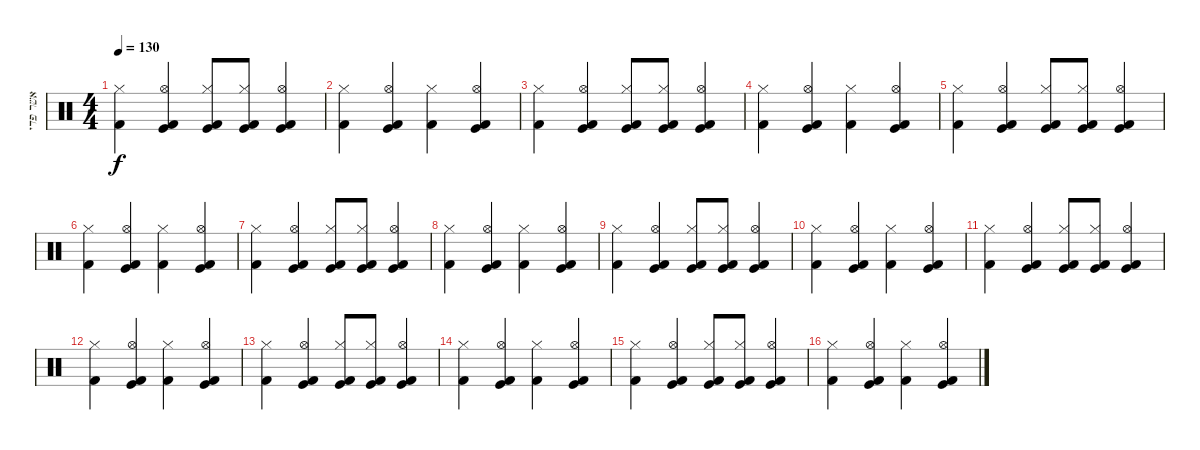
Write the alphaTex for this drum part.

\track ("אשר פדי" "אשר פדי") {instrument percussion}
\staff {score}
\articulation defaults
\ts (4 4)
\tempo 130
\clef neutral
\ks c
("Kick (hit) 2" "Hi-Hat (closed)").4{dy f} ("Kick (hit) 2" "Hi-Hat (open)" "Kick (hit)").4 ("Kick (hit) 2" "Hi-Hat (closed)" "Kick (hit)").8 ("Kick (hit) 2" "Hi-Hat (closed)" "Kick (hit)").8 ("Hi-Hat (open)" "Kick (hit) 2" "Kick (hit)").4 |
("Kick (hit) 2" "Hi-Hat (closed)").4 ("Hi-Hat (open)" "Kick (hit) 2" "Kick (hit)").4 ("Kick (hit) 2" "Hi-Hat (closed)").4 ("Hi-Hat (open)" "Kick (hit) 2" "Kick (hit)").4 |
("Kick (hit) 2" "Hi-Hat (closed)").4 ("Kick (hit) 2" "Hi-Hat (open)" "Kick (hit)").4 ("Kick (hit) 2" "Hi-Hat (closed)" "Kick (hit)").8 ("Kick (hit) 2" "Hi-Hat (closed)" "Kick (hit)").8 ("Hi-Hat (open)" "Kick (hit) 2" "Kick (hit)").4 |
("Kick (hit) 2" "Hi-Hat (closed)").4 ("Hi-Hat (open)" "Kick (hit) 2" "Kick (hit)").4 ("Kick (hit) 2" "Hi-Hat (closed)").4 ("Hi-Hat (open)" "Kick (hit) 2" "Kick (hit)").4 |
("Kick (hit) 2" "Hi-Hat (closed)").4 ("Kick (hit) 2" "Hi-Hat (open)" "Kick (hit)").4 ("Kick (hit) 2" "Hi-Hat (closed)" "Kick (hit)").8 ("Kick (hit) 2" "Hi-Hat (closed)" "Kick (hit)").8 ("Hi-Hat (open)" "Kick (hit) 2" "Kick (hit)").4 |
("Kick (hit) 2" "Hi-Hat (closed)").4 ("Hi-Hat (open)" "Kick (hit) 2" "Kick (hit)").4 ("Kick (hit) 2" "Hi-Hat (closed)").4 ("Hi-Hat (open)" "Kick (hit) 2" "Kick (hit)").4 |
("Kick (hit) 2" "Hi-Hat (closed)").4 ("Kick (hit) 2" "Hi-Hat (open)" "Kick (hit)").4 ("Kick (hit) 2" "Hi-Hat (closed)" "Kick (hit)").8 ("Kick (hit) 2" "Hi-Hat (closed)" "Kick (hit)").8 ("Hi-Hat (open)" "Kick (hit) 2" "Kick (hit)").4 |
("Kick (hit) 2" "Hi-Hat (closed)").4 ("Hi-Hat (open)" "Kick (hit) 2" "Kick (hit)").4 ("Kick (hit) 2" "Hi-Hat (closed)").4 ("Hi-Hat (open)" "Kick (hit) 2" "Kick (hit)").4 |
("Kick (hit) 2" "Hi-Hat (closed)").4 ("Kick (hit) 2" "Hi-Hat (open)" "Kick (hit)").4 ("Kick (hit) 2" "Hi-Hat (closed)" "Kick (hit)").8 ("Kick (hit) 2" "Hi-Hat (closed)" "Kick (hit)").8 ("Hi-Hat (open)" "Kick (hit) 2" "Kick (hit)").4 |
("Kick (hit) 2" "Hi-Hat (closed)").4 ("Hi-Hat (open)" "Kick (hit) 2" "Kick (hit)").4 ("Kick (hit) 2" "Hi-Hat (closed)").4 ("Hi-Hat (open)" "Kick (hit) 2" "Kick (hit)").4 |
("Kick (hit) 2" "Hi-Hat (closed)").4 ("Kick (hit) 2" "Hi-Hat (open)" "Kick (hit)").4 ("Kick (hit) 2" "Hi-Hat (closed)" "Kick (hit)").8 ("Kick (hit) 2" "Hi-Hat (closed)" "Kick (hit)").8 ("Hi-Hat (open)" "Kick (hit) 2" "Kick (hit)").4 |
("Kick (hit) 2" "Hi-Hat (closed)").4 ("Hi-Hat (open)" "Kick (hit) 2" "Kick (hit)").4 ("Kick (hit) 2" "Hi-Hat (closed)").4 ("Hi-Hat (open)" "Kick (hit) 2" "Kick (hit)").4 |
("Kick (hit) 2" "Hi-Hat (closed)").4 ("Kick (hit) 2" "Hi-Hat (open)" "Kick (hit)").4 ("Kick (hit) 2" "Hi-Hat (closed)" "Kick (hit)").8 ("Kick (hit) 2" "Hi-Hat (closed)" "Kick (hit)").8 ("Hi-Hat (open)" "Kick (hit) 2" "Kick (hit)").4 |
("Kick (hit) 2" "Hi-Hat (closed)").4 ("Hi-Hat (open)" "Kick (hit) 2" "Kick (hit)").4 ("Kick (hit) 2" "Hi-Hat (closed)").4 ("Hi-Hat (open)" "Kick (hit) 2" "Kick (hit)").4 |
("Kick (hit) 2" "Hi-Hat (closed)").4 ("Kick (hit) 2" "Hi-Hat (open)" "Kick (hit)").4 ("Kick (hit) 2" "Hi-Hat (closed)" "Kick (hit)").8 ("Kick (hit) 2" "Hi-Hat (closed)" "Kick (hit)").8 ("Hi-Hat (open)" "Kick (hit) 2" "Kick (hit)").4 |
("Kick (hit) 2" "Hi-Hat (closed)").4 ("Hi-Hat (open)" "Kick (hit) 2" "Kick (hit)").4 ("Kick (hit) 2" "Hi-Hat (closed)").4 ("Hi-Hat (open)" "Kick (hit) 2" "Kick (hit)").4
